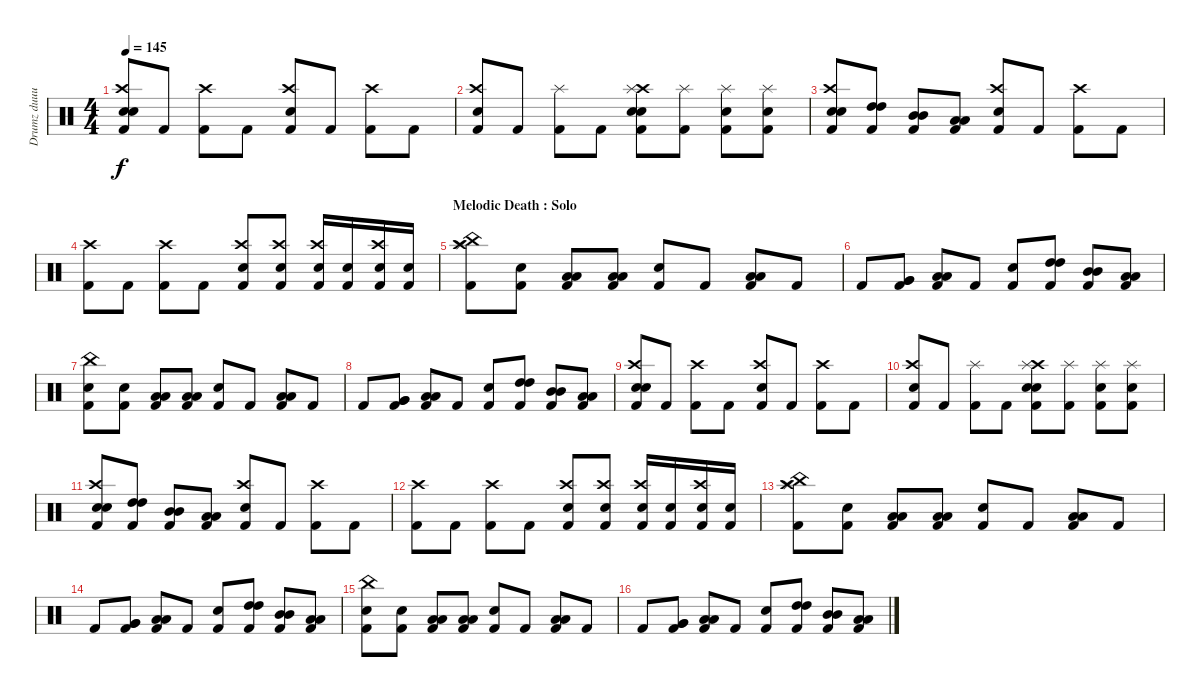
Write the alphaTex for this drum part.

\track ("Drumz duuuuude" "Drumz duuu") {instrument percussion}
\staff {score}
\articulation defaults
\ts (4 4)
\tempo 145
\clef neutral
\ks c
("Kick (hit) 2" "Crash high (hit)" "Snare (hit) 2" "Electric Snare (hit)").8{dy f} "Kick (hit) 2".8 ("Kick (hit) 2" "Crash high (hit)").8 "Kick (hit) 2".8 ("Kick (hit) 2" "Crash high (hit)" "Electric Snare (hit)").8 "Kick (hit) 2".8 ("Kick (hit) 2" "Crash high (hit)").8 "Kick (hit) 2".8 |
("Crash high (hit)" "Kick (hit) 2" "Electric Snare (hit)").8 "Kick (hit) 2".8 ("Kick (hit) 2" "Splash (hit)").8 "Kick (hit) 2".8 ("Crash high (hit)" "Kick (hit) 2" "Splash (hit)" "Snare (hit) 2" "Electric Snare (hit)").8 ("Kick (hit) 2" "Splash (hit)").8 ("Kick (hit) 2" "Splash (hit)" "Electric Snare (hit)").8 ("Kick (hit) 2" "Splash (hit)" "Electric Snare (hit)").8 |
("Kick (hit) 2" "Crash high (hit)" "Snare (hit) 2" "Electric Snare (hit)").8 ("Kick (hit) 2" "High Tom (hit)" "High Tom (hit)").8 ("Kick (hit) 2" "Mid Tom (hit)" "Mid Tom (hit)").8 ("Kick (hit) 2" "Low Tom (hit)" "Low Tom (hit)").8 ("Kick (hit) 2" "Crash high (hit)" "Electric Snare (hit)").8 "Kick (hit) 2".8 ("Kick (hit) 2" "Crash high (hit)").8 "Kick (hit) 2".8 |
("Crash high (hit)" "Kick (hit) 2").8 "Kick (hit) 2".8 ("Crash high (hit)" "Kick (hit) 2").8 "Kick (hit) 2".8 ("Crash high (hit)" "Kick (hit) 2" "Snare (hit) 2").8 ("Crash high (hit)" "Kick (hit) 2" "Electric Snare (hit)").8 ("Crash high (hit)" "Kick (hit) 2" "Electric Snare (hit)").16 ("Kick (hit) 2" "Electric Snare (hit)").16 ("Crash high (hit)" "Kick (hit) 2" "Electric Snare (hit)").16 ("Kick (hit) 2" "Electric Snare (hit)").16 |
\section ("" "Melodic Death : Solo")
("China (hit)" "Kick (hit) 2" "Splash (hit)" "Crash high (hit)").8 ("Kick (hit) 2" "Electric Snare (hit)").8 ("Kick (hit) 2" "Low Tom (hit)" "Low Tom (hit)").8 ("Kick (hit) 2" "Low Tom (hit)" "Low Tom (hit)").8 ("Kick (hit) 2" "Snare (hit) 2").8 "Kick (hit) 2".8 ("Kick (hit) 2" "Low Tom (hit)" "Low Tom (hit)").8 "Kick (hit) 2".8 |
"Kick (hit) 2".8 ("Kick (hit) 2" "Very Low Tom (hit)" "Very Low Tom (hit)").8 ("Kick (hit) 2" "Low Floor Tom (hit)" "Low Floor Tom (hit)").8 "Kick (hit) 2".8 ("Kick (hit) 2" "Snare (hit) 2").8 ("Kick (hit) 2" "High Tom (hit)" "High Tom (hit)").8 ("Kick (hit) 2" "Mid Tom (hit)" "Mid Tom (hit)").8 ("Kick (hit) 2" "Low Tom (hit)" "Low Tom (hit)").8 |
("China (hit)" "Kick (hit) 2" "Electric Snare (hit)").8 ("Kick (hit) 2" "Electric Snare (hit)").8 ("Kick (hit) 2" "Low Tom (hit)" "Low Tom (hit)").8 ("Kick (hit) 2" "Low Tom (hit)" "Low Tom (hit)").8 ("Kick (hit) 2" "Snare (hit) 2").8 "Kick (hit) 2".8 ("Kick (hit) 2" "Low Tom (hit)" "Low Tom (hit)").8 "Kick (hit) 2".8 |
"Kick (hit) 2".8 ("Kick (hit) 2" "Very Low Tom (hit)" "Very Low Tom (hit)").8 ("Kick (hit) 2" "Low Floor Tom (hit)" "Low Floor Tom (hit)").8 "Kick (hit) 2".8 ("Kick (hit) 2" "Snare (hit) 2").8 ("Kick (hit) 2" "High Tom (hit)" "High Tom (hit)").8 ("Kick (hit) 2" "Mid Tom (hit)" "Mid Tom (hit)").8 ("Kick (hit) 2" "Low Tom (hit)" "Low Tom (hit)").8 |
("Kick (hit) 2" "Crash high (hit)" "Snare (hit) 2" "Electric Snare (hit)").8 "Kick (hit) 2".8 ("Kick (hit) 2" "Crash high (hit)").8 "Kick (hit) 2".8 ("Kick (hit) 2" "Crash high (hit)" "Electric Snare (hit)").8 "Kick (hit) 2".8 ("Kick (hit) 2" "Crash high (hit)").8 "Kick (hit) 2".8 |
("Crash high (hit)" "Kick (hit) 2" "Electric Snare (hit)").8 "Kick (hit) 2".8 ("Kick (hit) 2" "Splash (hit)").8 "Kick (hit) 2".8 ("Crash high (hit)" "Kick (hit) 2" "Splash (hit)" "Snare (hit) 2" "Electric Snare (hit)").8 ("Kick (hit) 2" "Splash (hit)").8 ("Kick (hit) 2" "Splash (hit)" "Electric Snare (hit)").8 ("Kick (hit) 2" "Splash (hit)" "Electric Snare (hit)").8 |
("Kick (hit) 2" "Crash high (hit)" "Snare (hit) 2" "Electric Snare (hit)").8 ("Kick (hit) 2" "High Tom (hit)" "High Tom (hit)").8 ("Kick (hit) 2" "Mid Tom (hit)" "Mid Tom (hit)").8 ("Kick (hit) 2" "Low Tom (hit)" "Low Tom (hit)").8 ("Kick (hit) 2" "Crash high (hit)" "Electric Snare (hit)").8 "Kick (hit) 2".8 ("Kick (hit) 2" "Crash high (hit)").8 "Kick (hit) 2".8 |
("Crash high (hit)" "Kick (hit) 2").8 "Kick (hit) 2".8 ("Crash high (hit)" "Kick (hit) 2").8 "Kick (hit) 2".8 ("Crash high (hit)" "Kick (hit) 2" "Snare (hit) 2").8 ("Crash high (hit)" "Kick (hit) 2" "Electric Snare (hit)").8 ("Crash high (hit)" "Kick (hit) 2" "Electric Snare (hit)").16 ("Kick (hit) 2" "Electric Snare (hit)").16 ("Crash high (hit)" "Kick (hit) 2" "Electric Snare (hit)").16 ("Kick (hit) 2" "Electric Snare (hit)").16 |
("China (hit)" "Kick (hit) 2" "Splash (hit)" "Crash high (hit)").8 ("Kick (hit) 2" "Electric Snare (hit)").8 ("Kick (hit) 2" "Low Tom (hit)" "Low Tom (hit)").8 ("Kick (hit) 2" "Low Tom (hit)" "Low Tom (hit)").8 ("Kick (hit) 2" "Snare (hit) 2").8 "Kick (hit) 2".8 ("Kick (hit) 2" "Low Tom (hit)" "Low Tom (hit)").8 "Kick (hit) 2".8 |
"Kick (hit) 2".8 ("Kick (hit) 2" "Very Low Tom (hit)" "Very Low Tom (hit)").8 ("Kick (hit) 2" "Low Floor Tom (hit)" "Low Floor Tom (hit)").8 "Kick (hit) 2".8 ("Kick (hit) 2" "Snare (hit) 2").8 ("Kick (hit) 2" "High Tom (hit)" "High Tom (hit)").8 ("Kick (hit) 2" "Mid Tom (hit)" "Mid Tom (hit)").8 ("Kick (hit) 2" "Low Tom (hit)" "Low Tom (hit)").8 |
("China (hit)" "Kick (hit) 2" "Electric Snare (hit)").8 ("Kick (hit) 2" "Electric Snare (hit)").8 ("Kick (hit) 2" "Low Tom (hit)" "Low Tom (hit)").8 ("Kick (hit) 2" "Low Tom (hit)" "Low Tom (hit)").8 ("Kick (hit) 2" "Snare (hit) 2").8 "Kick (hit) 2".8 ("Kick (hit) 2" "Low Tom (hit)" "Low Tom (hit)").8 "Kick (hit) 2".8 |
"Kick (hit) 2".8 ("Kick (hit) 2" "Very Low Tom (hit)" "Very Low Tom (hit)").8 ("Kick (hit) 2" "Low Floor Tom (hit)" "Low Floor Tom (hit)").8 "Kick (hit) 2".8 ("Kick (hit) 2" "Snare (hit) 2").8 ("Kick (hit) 2" "High Tom (hit)" "High Tom (hit)").8 ("Kick (hit) 2" "Mid Tom (hit)" "Mid Tom (hit)").8 ("Kick (hit) 2" "Low Tom (hit)" "Low Tom (hit)").8
